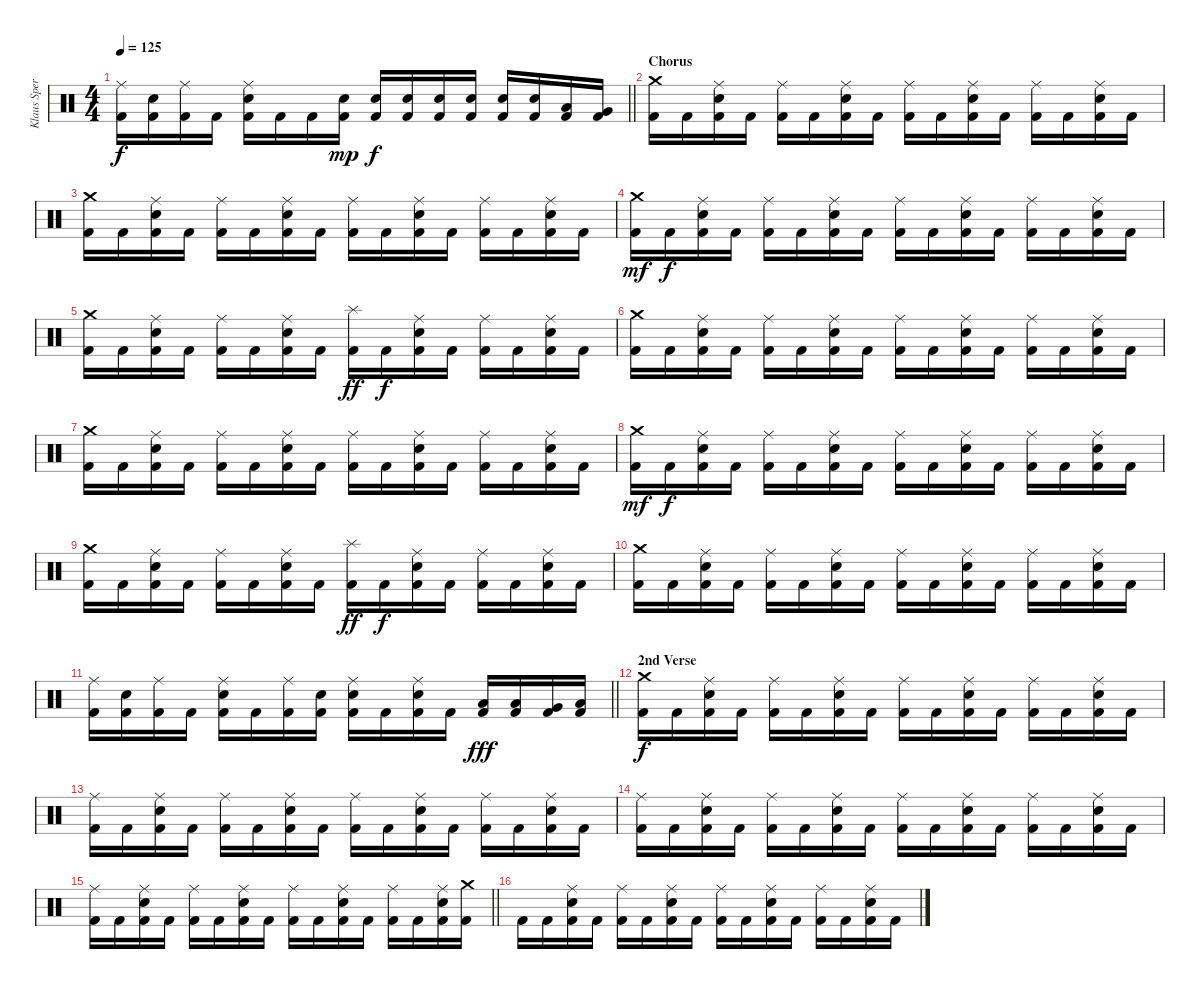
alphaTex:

\track ("Klaus Sperling" "Klaus Sper") {instrument percussion}
\staff {score}
\articulation defaults
\ts (4 4)
\tempo 125
\clef neutral
\barLineRight lightlight
\ks c
("Ride (middle)" "Kick (hit) 2").16{dy f} ("Electric Snare (hit)" "Kick (hit) 2").16 ("Ride (middle)" "Kick (hit) 2").16 "Kick (hit) 2".16 ("Ride (middle)" "Electric Snare (hit)" "Kick (hit) 2").16 "Kick (hit) 2".16 "Kick (hit) 2".16 ("Electric Snare (hit)" "Kick (hit) 2").16{dy mp} ("Electric Snare (hit)" "Kick (hit) 2").16{dy f} ("Electric Snare (hit)" "Kick (hit) 2").16 ("Electric Snare (hit)" "Kick (hit) 2").16 ("Electric Snare (hit)" "Kick (hit) 2").16 ("Electric Snare (hit)" "Kick (hit) 2").16 ("Electric Snare (hit)" "Kick (hit) 2").16 ("Low Tom (hit)" "Kick (hit) 2").16 ("Very Low Tom (hit)" "Kick (hit) 2").16 |
\section ("" "Chorus")
("Crash medium (hit)" "Kick (hit) 2").16 "Kick (hit) 2".16 ("Ride (middle)" "Electric Snare (hit)" "Kick (hit) 2").16 "Kick (hit) 2".16 ("Ride (middle)" "Kick (hit) 2").16 "Kick (hit) 2".16 ("Ride (middle)" "Electric Snare (hit)" "Kick (hit) 2").16 "Kick (hit) 2".16 ("Ride (middle)" "Kick (hit) 2").16 "Kick (hit) 2".16 ("Ride (middle)" "Electric Snare (hit)" "Kick (hit) 2").16 "Kick (hit) 2".16 ("Ride (middle)" "Kick (hit) 2").16 "Kick (hit) 2".16 ("Ride (middle)" "Electric Snare (hit)" "Kick (hit) 2").16 "Kick (hit) 2".16 |
("Crash medium (hit)" "Kick (hit) 2").16 "Kick (hit) 2".16 ("Ride (middle)" "Electric Snare (hit)" "Kick (hit) 2").16 "Kick (hit) 2".16 ("Ride (middle)" "Kick (hit) 2").16 "Kick (hit) 2".16 ("Ride (middle)" "Electric Snare (hit)" "Kick (hit) 2").16 "Kick (hit) 2".16 ("Ride (middle)" "Kick (hit) 2").16 "Kick (hit) 2".16 ("Ride (middle)" "Electric Snare (hit)" "Kick (hit) 2").16 "Kick (hit) 2".16 ("Ride (middle)" "Kick (hit) 2").16 "Kick (hit) 2".16 ("Ride (middle)" "Electric Snare (hit)" "Kick (hit) 2").16 "Kick (hit) 2".16 |
("Crash medium (hit)" "Kick (hit) 2").16{dy mf} "Kick (hit) 2".16{dy f} ("Ride (middle)" "Electric Snare (hit)" "Kick (hit) 2").16 "Kick (hit) 2".16 ("Ride (middle)" "Kick (hit) 2").16 "Kick (hit) 2".16 ("Ride (middle)" "Electric Snare (hit)" "Kick (hit) 2").16 "Kick (hit) 2".16 ("Ride (middle)" "Kick (hit) 2").16 "Kick (hit) 2".16 ("Ride (middle)" "Electric Snare (hit)" "Kick (hit) 2").16 "Kick (hit) 2".16 ("Ride (middle)" "Kick (hit) 2").16 "Kick (hit) 2".16 ("Ride (middle)" "Electric Snare (hit)" "Kick (hit) 2").16 "Kick (hit) 2".16 |
("Crash medium (hit)" "Kick (hit) 2").16 "Kick (hit) 2".16 ("Ride (middle)" "Electric Snare (hit)" "Kick (hit) 2").16 "Kick (hit) 2".16 ("Ride (middle)" "Kick (hit) 2").16 "Kick (hit) 2".16 ("Ride (middle)" "Electric Snare (hit)" "Kick (hit) 2").16 "Kick (hit) 2".16 ("Splash (hit)" "Kick (hit) 2").16{dy ff} "Kick (hit) 2".16{dy f} ("Ride (middle)" "Electric Snare (hit)" "Kick (hit) 2").16 "Kick (hit) 2".16 ("Ride (middle)" "Kick (hit) 2").16 "Kick (hit) 2".16 ("Ride (middle)" "Electric Snare (hit)" "Kick (hit) 2").16 "Kick (hit) 2".16 |
("Crash medium (hit)" "Kick (hit) 2").16 "Kick (hit) 2".16 ("Ride (middle)" "Electric Snare (hit)" "Kick (hit) 2").16 "Kick (hit) 2".16 ("Ride (middle)" "Kick (hit) 2").16 "Kick (hit) 2".16 ("Ride (middle)" "Electric Snare (hit)" "Kick (hit) 2").16 "Kick (hit) 2".16 ("Ride (middle)" "Kick (hit) 2").16 "Kick (hit) 2".16 ("Ride (middle)" "Electric Snare (hit)" "Kick (hit) 2").16 "Kick (hit) 2".16 ("Ride (middle)" "Kick (hit) 2").16 "Kick (hit) 2".16 ("Ride (middle)" "Electric Snare (hit)" "Kick (hit) 2").16 "Kick (hit) 2".16 |
("Crash medium (hit)" "Kick (hit) 2").16 "Kick (hit) 2".16 ("Ride (middle)" "Electric Snare (hit)" "Kick (hit) 2").16 "Kick (hit) 2".16 ("Ride (middle)" "Kick (hit) 2").16 "Kick (hit) 2".16 ("Ride (middle)" "Electric Snare (hit)" "Kick (hit) 2").16 "Kick (hit) 2".16 ("Ride (middle)" "Kick (hit) 2").16 "Kick (hit) 2".16 ("Ride (middle)" "Electric Snare (hit)" "Kick (hit) 2").16 "Kick (hit) 2".16 ("Ride (middle)" "Kick (hit) 2").16 "Kick (hit) 2".16 ("Ride (middle)" "Electric Snare (hit)" "Kick (hit) 2").16 "Kick (hit) 2".16 |
("Crash medium (hit)" "Kick (hit) 2").16{dy mf} "Kick (hit) 2".16{dy f} ("Ride (middle)" "Electric Snare (hit)" "Kick (hit) 2").16 "Kick (hit) 2".16 ("Ride (middle)" "Kick (hit) 2").16 "Kick (hit) 2".16 ("Ride (middle)" "Electric Snare (hit)" "Kick (hit) 2").16 "Kick (hit) 2".16 ("Ride (middle)" "Kick (hit) 2").16 "Kick (hit) 2".16 ("Ride (middle)" "Electric Snare (hit)" "Kick (hit) 2").16 "Kick (hit) 2".16 ("Ride (middle)" "Kick (hit) 2").16 "Kick (hit) 2".16 ("Ride (middle)" "Electric Snare (hit)" "Kick (hit) 2").16 "Kick (hit) 2".16 |
("Crash medium (hit)" "Kick (hit) 2").16 "Kick (hit) 2".16 ("Ride (middle)" "Electric Snare (hit)" "Kick (hit) 2").16 "Kick (hit) 2".16 ("Ride (middle)" "Kick (hit) 2").16 "Kick (hit) 2".16 ("Ride (middle)" "Electric Snare (hit)" "Kick (hit) 2").16 "Kick (hit) 2".16 ("Splash (hit)" "Kick (hit) 2").16{dy ff} "Kick (hit) 2".16{dy f} ("Ride (middle)" "Electric Snare (hit)" "Kick (hit) 2").16 "Kick (hit) 2".16 ("Ride (middle)" "Kick (hit) 2").16 "Kick (hit) 2".16 ("Ride (middle)" "Electric Snare (hit)" "Kick (hit) 2").16 "Kick (hit) 2".16 |
("Crash medium (hit)" "Kick (hit) 2").16 "Kick (hit) 2".16 ("Ride (middle)" "Electric Snare (hit)" "Kick (hit) 2").16 "Kick (hit) 2".16 ("Ride (middle)" "Kick (hit) 2").16 "Kick (hit) 2".16 ("Ride (middle)" "Electric Snare (hit)" "Kick (hit) 2").16 "Kick (hit) 2".16 ("Ride (middle)" "Kick (hit) 2").16 "Kick (hit) 2".16 ("Ride (middle)" "Electric Snare (hit)" "Kick (hit) 2").16 "Kick (hit) 2".16 ("Ride (middle)" "Kick (hit) 2").16 "Kick (hit) 2".16 ("Ride (middle)" "Electric Snare (hit)" "Kick (hit) 2").16 "Kick (hit) 2".16 |
\barLineRight lightlight
("Ride (middle)" "Kick (hit) 2").16 ("Electric Snare (hit)" "Kick (hit) 2").16 ("Ride (middle)" "Kick (hit) 2").16 "Kick (hit) 2".16 ("Ride (middle)" "Electric Snare (hit)" "Kick (hit) 2").16 "Kick (hit) 2".16 ("Ride (middle)" "Kick (hit) 2").16 ("Electric Snare (hit)" "Kick (hit) 2").16 ("Ride (middle)" "Electric Snare (hit)" "Kick (hit) 2").16 "Kick (hit) 2".16 ("Ride (middle)" "Electric Snare (hit)" "Kick (hit) 2").16 "Kick (hit) 2".16 ("Low Tom (hit)" "Kick (hit) 2").16{dy fff} ("Low Tom (hit)" "Kick (hit) 2").16 ("Very Low Tom (hit)" "Kick (hit) 2").16 ("Low Floor Tom (hit)" "Kick (hit) 2").16 |
\section ("" "2nd Verse")
("Crash medium (hit)" "Kick (hit) 2").16{dy f} "Kick (hit) 2".16 ("Ride (middle)" "Electric Snare (hit)" "Kick (hit) 2").16 "Kick (hit) 2".16 ("Ride (middle)" "Kick (hit) 2").16 "Kick (hit) 2".16 ("Ride (middle)" "Electric Snare (hit)" "Kick (hit) 2").16 "Kick (hit) 2".16 ("Ride (middle)" "Kick (hit) 2").16 "Kick (hit) 2".16 ("Ride (middle)" "Electric Snare (hit)" "Kick (hit) 2").16 "Kick (hit) 2".16 ("Ride (middle)" "Kick (hit) 2").16 "Kick (hit) 2".16 ("Ride (middle)" "Electric Snare (hit)" "Kick (hit) 2").16 "Kick (hit) 2".16 |
("Ride (middle)" "Kick (hit) 2").16 "Kick (hit) 2".16 ("Ride (middle)" "Electric Snare (hit)" "Kick (hit) 2").16 "Kick (hit) 2".16 ("Ride (middle)" "Kick (hit) 2").16 "Kick (hit) 2".16 ("Ride (middle)" "Electric Snare (hit)" "Kick (hit) 2").16 "Kick (hit) 2".16 ("Ride (middle)" "Kick (hit) 2").16 "Kick (hit) 2".16 ("Ride (middle)" "Electric Snare (hit)" "Kick (hit) 2").16 "Kick (hit) 2".16 ("Ride (middle)" "Kick (hit) 2").16 "Kick (hit) 2".16 ("Ride (middle)" "Electric Snare (hit)" "Kick (hit) 2").16 "Kick (hit) 2".16 |
("Ride (middle)" "Kick (hit) 2").16 "Kick (hit) 2".16 ("Ride (middle)" "Electric Snare (hit)" "Kick (hit) 2").16 "Kick (hit) 2".16 ("Ride (middle)" "Kick (hit) 2").16 "Kick (hit) 2".16 ("Ride (middle)" "Electric Snare (hit)" "Kick (hit) 2").16 "Kick (hit) 2".16 ("Ride (middle)" "Kick (hit) 2").16 "Kick (hit) 2".16 ("Ride (middle)" "Electric Snare (hit)" "Kick (hit) 2").16 "Kick (hit) 2".16 ("Ride (middle)" "Kick (hit) 2").16 "Kick (hit) 2".16 ("Ride (middle)" "Electric Snare (hit)" "Kick (hit) 2").16 "Kick (hit) 2".16 |
\barLineRight lightlight
("Ride (middle)" "Kick (hit) 2").16 "Kick (hit) 2".16 ("Ride (middle)" "Electric Snare (hit)" "Kick (hit) 2").16 "Kick (hit) 2".16 ("Ride (middle)" "Kick (hit) 2").16 "Kick (hit) 2".16 ("Ride (middle)" "Electric Snare (hit)" "Kick (hit) 2").16 "Kick (hit) 2".16 ("Ride (middle)" "Kick (hit) 2").16 "Kick (hit) 2".16 ("Ride (middle)" "Electric Snare (hit)" "Kick (hit) 2").16 "Kick (hit) 2".16 ("Ride (middle)" "Kick (hit) 2").16 "Kick (hit) 2".16 ("Ride (middle)" "Electric Snare (hit)" "Kick (hit) 2").16 ("Crash medium (hit)" "Kick (hit) 2").16 |
"Kick (hit) 2".16 "Kick (hit) 2".16 ("Ride (middle)" "Electric Snare (hit)" "Kick (hit) 2").16 "Kick (hit) 2".16 ("Ride (middle)" "Kick (hit) 2").16 "Kick (hit) 2".16 ("Ride (middle)" "Electric Snare (hit)" "Kick (hit) 2").16 "Kick (hit) 2".16 ("Ride (middle)" "Kick (hit) 2").16 "Kick (hit) 2".16 ("Ride (middle)" "Electric Snare (hit)" "Kick (hit) 2").16 "Kick (hit) 2".16 ("Ride (middle)" "Kick (hit) 2").16 "Kick (hit) 2".16 ("Ride (middle)" "Electric Snare (hit)" "Kick (hit) 2").16 "Kick (hit) 2".16
